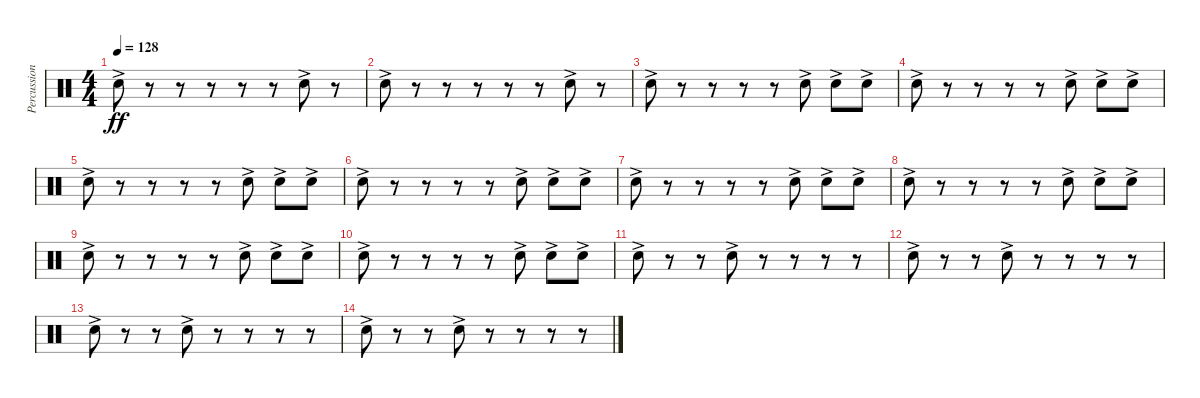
\track ("Percussion" "Percussion") {instrument percussion}
\staff {score}
\articulation defaults
\ts (4 4)
\tempo 128
\clef neutral
\ks c "Snare (hit) 2"{ac}.8{dy ff}
r.8 r.8 r.8 r.8 r.8 "Snare (hit) 2"{ac}.8 r.8 |
"Snare (hit) 2"{ac}.8 r.8 r.8 r.8 r.8 r.8 "Snare (hit) 2"{ac}.8 r.8 |
"Snare (hit) 2"{ac}.8 r.8 r.8 r.8 r.8 "Snare (hit) 2"{ac}.8 "Snare (hit) 2"{ac}.8 "Snare (hit) 2"{ac}.8 |
"Snare (hit) 2"{ac}.8 r.8 r.8 r.8 r.8 "Snare (hit) 2"{ac}.8 "Snare (hit) 2"{ac}.8 "Snare (hit) 2"{ac}.8 |
"Snare (hit) 2"{ac}.8 r.8 r.8 r.8 r.8 "Snare (hit) 2"{ac}.8 "Snare (hit) 2"{ac}.8 "Snare (hit) 2"{ac}.8 |
"Snare (hit) 2"{ac}.8 r.8 r.8 r.8 r.8 "Snare (hit) 2"{ac}.8 "Snare (hit) 2"{ac}.8 "Snare (hit) 2"{ac}.8 |
"Snare (hit) 2"{ac}.8 r.8 r.8 r.8 r.8 "Snare (hit) 2"{ac}.8 "Snare (hit) 2"{ac}.8 "Snare (hit) 2"{ac}.8 |
"Snare (hit) 2"{ac}.8 r.8 r.8 r.8 r.8 "Snare (hit) 2"{ac}.8 "Snare (hit) 2"{ac}.8 "Snare (hit) 2"{ac}.8 |
"Snare (hit) 2"{ac}.8 r.8 r.8 r.8 r.8 "Snare (hit) 2"{ac}.8 "Snare (hit) 2"{ac}.8 "Snare (hit) 2"{ac}.8 |
"Snare (hit) 2"{ac}.8 r.8 r.8 r.8 r.8 "Snare (hit) 2"{ac}.8 "Snare (hit) 2"{ac}.8 "Snare (hit) 2"{ac}.8 |
"Snare (hit) 2"{ac}.8 r.8 r.8 "Snare (hit) 2"{ac}.8 r.8 r.8 r.8 r.8 |
"Snare (hit) 2"{ac}.8 r.8 r.8 "Snare (hit) 2"{ac}.8 r.8 r.8 r.8 r.8 |
"Snare (hit) 2"{ac}.8 r.8 r.8 "Snare (hit) 2"{ac}.8 r.8 r.8 r.8 r.8 |
"Snare (hit) 2"{ac}.8 r.8 r.8 "Snare (hit) 2"{ac}.8 r.8 r.8 r.8 r.8
